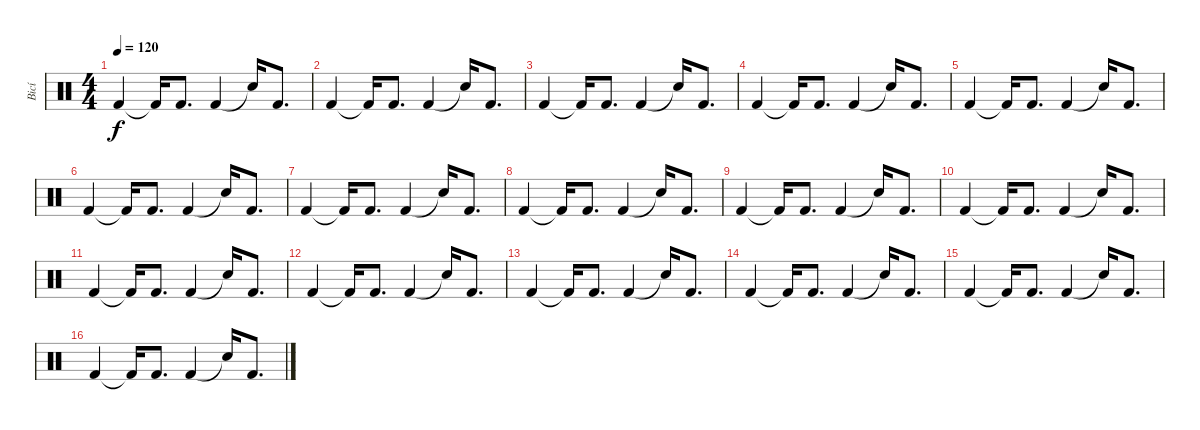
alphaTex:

\track ("Bicí" "Bicí") {instrument percussion}
\staff {score}
\articulation defaults
\ts (4 4)
\tempo 120
\clef neutral
\ks c "Kick (hit) 2".4{dy f} "Kick (hit) 2"{t}.16 "Kick (hit) 2".8{d} "Kick (hit) 2".4 "Snare (hit)"{t}.16 "Kick (hit) 2".8{d}
|
"Kick (hit) 2".4 "Kick (hit) 2"{t}.16 "Kick (hit) 2".8{d} "Kick (hit) 2".4 "Snare (hit)"{t}.16 "Kick (hit) 2".8{d} |
"Kick (hit) 2".4 "Kick (hit) 2"{t}.16 "Kick (hit) 2".8{d} "Kick (hit) 2".4 "Snare (hit)"{t}.16 "Kick (hit) 2".8{d} |
"Kick (hit) 2".4 "Kick (hit) 2"{t}.16 "Kick (hit) 2".8{d} "Kick (hit) 2".4 "Snare (hit)"{t}.16 "Kick (hit) 2".8{d} |
"Kick (hit) 2".4 "Kick (hit) 2"{t}.16 "Kick (hit) 2".8{d} "Kick (hit) 2".4 "Snare (hit)"{t}.16 "Kick (hit) 2".8{d} |
"Kick (hit) 2".4 "Kick (hit) 2"{t}.16 "Kick (hit) 2".8{d} "Kick (hit) 2".4 "Snare (hit)"{t}.16 "Kick (hit) 2".8{d} |
"Kick (hit) 2".4 "Kick (hit) 2"{t}.16 "Kick (hit) 2".8{d} "Kick (hit) 2".4 "Snare (hit)"{t}.16 "Kick (hit) 2".8{d} |
"Kick (hit) 2".4 "Kick (hit) 2"{t}.16 "Kick (hit) 2".8{d} "Kick (hit) 2".4 "Snare (hit)"{t}.16 "Kick (hit) 2".8{d} |
"Kick (hit) 2".4 "Kick (hit) 2"{t}.16 "Kick (hit) 2".8{d} "Kick (hit) 2".4 "Snare (hit)"{t}.16 "Kick (hit) 2".8{d} |
"Kick (hit) 2".4 "Kick (hit) 2"{t}.16 "Kick (hit) 2".8{d} "Kick (hit) 2".4 "Snare (hit)"{t}.16 "Kick (hit) 2".8{d} |
"Kick (hit) 2".4 "Kick (hit) 2"{t}.16 "Kick (hit) 2".8{d} "Kick (hit) 2".4 "Snare (hit)"{t}.16 "Kick (hit) 2".8{d} |
"Kick (hit) 2".4 "Kick (hit) 2"{t}.16 "Kick (hit) 2".8{d} "Kick (hit) 2".4 "Snare (hit)"{t}.16 "Kick (hit) 2".8{d} |
"Kick (hit) 2".4 "Kick (hit) 2"{t}.16 "Kick (hit) 2".8{d} "Kick (hit) 2".4 "Snare (hit)"{t}.16 "Kick (hit) 2".8{d} |
"Kick (hit) 2".4 "Kick (hit) 2"{t}.16 "Kick (hit) 2".8{d} "Kick (hit) 2".4 "Snare (hit)"{t}.16 "Kick (hit) 2".8{d} |
"Kick (hit) 2".4 "Kick (hit) 2"{t}.16 "Kick (hit) 2".8{d} "Kick (hit) 2".4 "Snare (hit)"{t}.16 "Kick (hit) 2".8{d} |
"Kick (hit) 2".4 "Kick (hit) 2"{t}.16 "Kick (hit) 2".8{d} "Kick (hit) 2".4 "Snare (hit)"{t}.16 "Kick (hit) 2".8{d}
